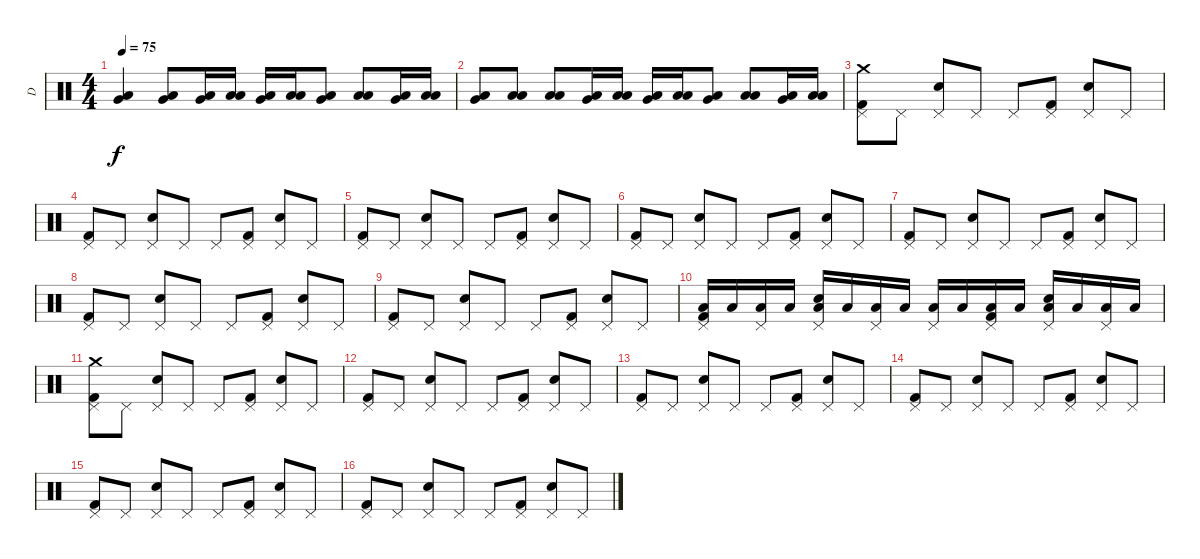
\track ("D" "D") {instrument percussion}
\staff {score}
\articulation defaults
\ts (4 4)
\tempo 75
\clef neutral
\ks c
("Very Low Tom (hit)" "Low Floor Tom (hit)").4{dy f} ("Very Low Tom (hit)" "Low Floor Tom (hit)").8 ("Very Low Tom (hit)" "Low Floor Tom (hit)").16 ("Low Tom (hit)" "Low Floor Tom (hit)").16 ("Very Low Tom (hit)" "Low Floor Tom (hit)").16 ("Low Tom (hit)" "Low Floor Tom (hit)").16 ("Very Low Tom (hit)" "Low Floor Tom (hit)").8 ("Low Tom (hit)" "Low Floor Tom (hit)").8 ("Very Low Tom (hit)" "Low Floor Tom (hit)").16 ("Low Tom (hit)" "Low Floor Tom (hit)").16 |
("Very Low Tom (hit)" "Low Floor Tom (hit)").8 ("Low Floor Tom (hit)" "Low Floor Tom (hit)").8 ("Low Tom (hit)" "Low Floor Tom (hit)").8 ("Very Low Tom (hit)" "Low Floor Tom (hit)").16 ("Low Tom (hit)" "Low Floor Tom (hit)").16 ("Very Low Tom (hit)" "Low Floor Tom (hit)").16 ("Low Tom (hit)" "Low Floor Tom (hit)").16 ("Very Low Tom (hit)" "Low Floor Tom (hit)").8 ("Low Tom (hit)" "Low Floor Tom (hit)").8 ("Very Low Tom (hit)" "Low Floor Tom (hit)").16 ("Low Tom (hit)" "Low Floor Tom (hit)").16 |
("Crash medium (hit)" "Kick (hit) 2" "Pedal Hi-Hat (hit)").8 "Pedal Hi-Hat (hit)".8 ("Electric Snare (hit)" "Pedal Hi-Hat (hit)").8 "Pedal Hi-Hat (hit)".8 "Pedal Hi-Hat (hit)".8 ("Kick (hit) 2" "Pedal Hi-Hat (hit)").8 ("Electric Snare (hit)" "Pedal Hi-Hat (hit)").8 "Pedal Hi-Hat (hit)".8 |
("Kick (hit) 2" "Pedal Hi-Hat (hit)").8 "Pedal Hi-Hat (hit)".8 ("Electric Snare (hit)" "Pedal Hi-Hat (hit)").8 "Pedal Hi-Hat (hit)".8 "Pedal Hi-Hat (hit)".8 ("Kick (hit) 2" "Pedal Hi-Hat (hit)").8 ("Electric Snare (hit)" "Pedal Hi-Hat (hit)").8 "Pedal Hi-Hat (hit)".8 |
("Kick (hit) 2" "Pedal Hi-Hat (hit)").8 "Pedal Hi-Hat (hit)".8 ("Electric Snare (hit)" "Pedal Hi-Hat (hit)").8 "Pedal Hi-Hat (hit)".8 "Pedal Hi-Hat (hit)".8 ("Kick (hit) 2" "Pedal Hi-Hat (hit)").8 ("Electric Snare (hit)" "Pedal Hi-Hat (hit)").8 "Pedal Hi-Hat (hit)".8 |
("Kick (hit) 2" "Pedal Hi-Hat (hit)").8 "Pedal Hi-Hat (hit)".8 ("Electric Snare (hit)" "Pedal Hi-Hat (hit)").8 "Pedal Hi-Hat (hit)".8 "Pedal Hi-Hat (hit)".8 ("Kick (hit) 2" "Pedal Hi-Hat (hit)").8 ("Electric Snare (hit)" "Pedal Hi-Hat (hit)").8 "Pedal Hi-Hat (hit)".8 |
("Kick (hit) 2" "Pedal Hi-Hat (hit)").8 "Pedal Hi-Hat (hit)".8 ("Electric Snare (hit)" "Pedal Hi-Hat (hit)").8 "Pedal Hi-Hat (hit)".8 "Pedal Hi-Hat (hit)".8 ("Kick (hit) 2" "Pedal Hi-Hat (hit)").8 ("Electric Snare (hit)" "Pedal Hi-Hat (hit)").8 "Pedal Hi-Hat (hit)".8 |
("Kick (hit) 2" "Pedal Hi-Hat (hit)").8 "Pedal Hi-Hat (hit)".8 ("Electric Snare (hit)" "Pedal Hi-Hat (hit)").8 "Pedal Hi-Hat (hit)".8 "Pedal Hi-Hat (hit)".8 ("Kick (hit) 2" "Pedal Hi-Hat (hit)").8 ("Electric Snare (hit)" "Pedal Hi-Hat (hit)").8 "Pedal Hi-Hat (hit)".8 |
("Kick (hit) 2" "Pedal Hi-Hat (hit)").8 "Pedal Hi-Hat (hit)".8 ("Electric Snare (hit)" "Pedal Hi-Hat (hit)").8 "Pedal Hi-Hat (hit)".8 "Pedal Hi-Hat (hit)".8 ("Kick (hit) 2" "Pedal Hi-Hat (hit)").8 ("Electric Snare (hit)" "Pedal Hi-Hat (hit)").8 "Pedal Hi-Hat (hit)".8 |
("Kick (hit) 2" "Low Floor Tom (hit)" "Pedal Hi-Hat (hit)").16 "Low Floor Tom (hit)".16 ("Low Floor Tom (hit)" "Pedal Hi-Hat (hit)").16 "Low Floor Tom (hit)".16 ("Electric Snare (hit)" "Low Floor Tom (hit)" "Pedal Hi-Hat (hit)").16 "Low Floor Tom (hit)".16 ("Low Floor Tom (hit)" "Pedal Hi-Hat (hit)").16 "Low Floor Tom (hit)".16 ("Low Floor Tom (hit)" "Pedal Hi-Hat (hit)").16 "Low Floor Tom (hit)".16 ("Kick (hit) 2" "Low Floor Tom (hit)" "Pedal Hi-Hat (hit)").16 "Low Floor Tom (hit)".16 ("Electric Snare (hit)" "Low Floor Tom (hit)" "Pedal Hi-Hat (hit)").16 "Low Floor Tom (hit)".16 ("Low Floor Tom (hit)" "Pedal Hi-Hat (hit)").16 "Low Floor Tom (hit)".16 |
("Crash medium (hit)" "Kick (hit) 2" "Pedal Hi-Hat (hit)").8 "Pedal Hi-Hat (hit)".8 ("Electric Snare (hit)" "Pedal Hi-Hat (hit)").8 "Pedal Hi-Hat (hit)".8 "Pedal Hi-Hat (hit)".8 ("Kick (hit) 2" "Pedal Hi-Hat (hit)").8 ("Electric Snare (hit)" "Pedal Hi-Hat (hit)").8 "Pedal Hi-Hat (hit)".8 |
("Kick (hit) 2" "Pedal Hi-Hat (hit)").8 "Pedal Hi-Hat (hit)".8 ("Electric Snare (hit)" "Pedal Hi-Hat (hit)").8 "Pedal Hi-Hat (hit)".8 "Pedal Hi-Hat (hit)".8 ("Kick (hit) 2" "Pedal Hi-Hat (hit)").8 ("Electric Snare (hit)" "Pedal Hi-Hat (hit)").8 "Pedal Hi-Hat (hit)".8 |
("Kick (hit) 2" "Pedal Hi-Hat (hit)").8 "Pedal Hi-Hat (hit)".8 ("Electric Snare (hit)" "Pedal Hi-Hat (hit)").8 "Pedal Hi-Hat (hit)".8 "Pedal Hi-Hat (hit)".8 ("Kick (hit) 2" "Pedal Hi-Hat (hit)").8 ("Electric Snare (hit)" "Pedal Hi-Hat (hit)").8 "Pedal Hi-Hat (hit)".8 |
("Kick (hit) 2" "Pedal Hi-Hat (hit)").8 "Pedal Hi-Hat (hit)".8 ("Electric Snare (hit)" "Pedal Hi-Hat (hit)").8 "Pedal Hi-Hat (hit)".8 "Pedal Hi-Hat (hit)".8 ("Kick (hit) 2" "Pedal Hi-Hat (hit)").8 ("Electric Snare (hit)" "Pedal Hi-Hat (hit)").8 "Pedal Hi-Hat (hit)".8 |
("Kick (hit) 2" "Pedal Hi-Hat (hit)").8 "Pedal Hi-Hat (hit)".8 ("Electric Snare (hit)" "Pedal Hi-Hat (hit)").8 "Pedal Hi-Hat (hit)".8 "Pedal Hi-Hat (hit)".8 ("Kick (hit) 2" "Pedal Hi-Hat (hit)").8 ("Electric Snare (hit)" "Pedal Hi-Hat (hit)").8 "Pedal Hi-Hat (hit)".8 |
("Kick (hit) 2" "Pedal Hi-Hat (hit)").8 "Pedal Hi-Hat (hit)".8 ("Electric Snare (hit)" "Pedal Hi-Hat (hit)").8 "Pedal Hi-Hat (hit)".8 "Pedal Hi-Hat (hit)".8 ("Kick (hit) 2" "Pedal Hi-Hat (hit)").8 ("Electric Snare (hit)" "Pedal Hi-Hat (hit)").8 "Pedal Hi-Hat (hit)".8
